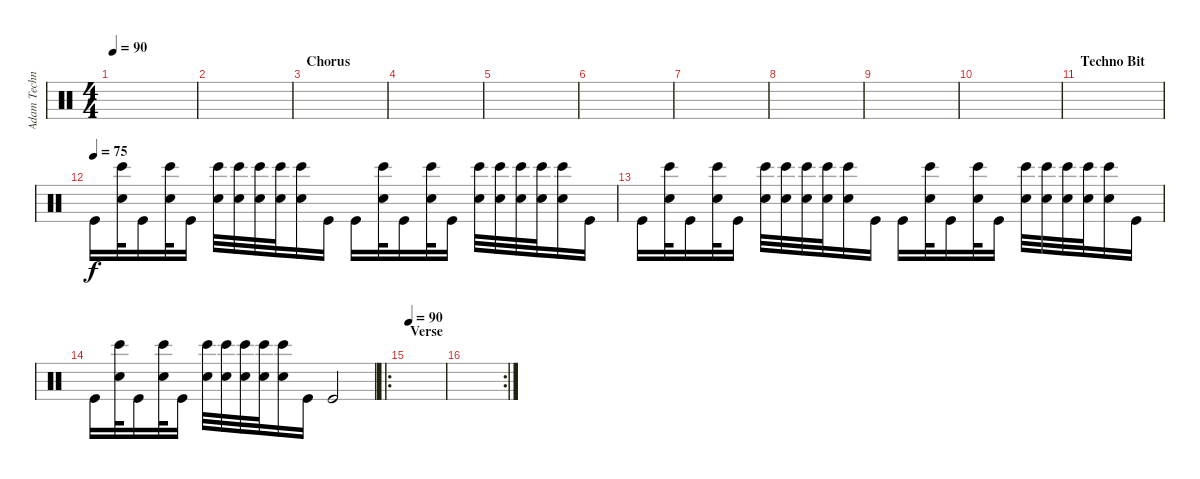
\track ("Adam Techno" "Adam Techn") {instrument percussion}
\staff {score}
\articulation defaults
\ts (4 4)
\tempo 90
\clef neutral
\ks c
|
|
\section ("" "Chorus")
|
|
|
|
|
|
|
|
\section ("" "Techno Bit")
|
\tempo (75)
"Kick (hit)".16 ("Bongo High (hit)" "Snare (hit) 2").32 "Kick (hit)".16 ("Bongo High (hit)" "Snare (hit) 2").32 "Kick (hit)".16 ("Bongo High (hit)" "Snare (hit) 2").32 ("Bongo High (hit)" "Snare (hit) 2").32 ("Bongo High (hit)" "Snare (hit) 2").32 ("Bongo High (hit)" "Snare (hit) 2").32 ("Bongo High (hit)" "Snare (hit) 2").16 "Kick (hit)".16 "Kick (hit)".16 ("Bongo High (hit)" "Snare (hit) 2").32 "Kick (hit)".16 ("Bongo High (hit)" "Snare (hit) 2").32 "Kick (hit)".16 ("Bongo High (hit)" "Snare (hit) 2").32 ("Bongo High (hit)" "Snare (hit) 2").32 ("Bongo High (hit)" "Snare (hit) 2").32 ("Bongo High (hit)" "Snare (hit) 2").32 ("Bongo High (hit)" "Snare (hit) 2").16 "Kick (hit)".16 |
"Kick (hit)".16 ("Bongo High (hit)" "Snare (hit) 2").32 "Kick (hit)".16 ("Bongo High (hit)" "Snare (hit) 2").32 "Kick (hit)".16 ("Bongo High (hit)" "Snare (hit) 2").32 ("Bongo High (hit)" "Snare (hit) 2").32 ("Bongo High (hit)" "Snare (hit) 2").32 ("Bongo High (hit)" "Snare (hit) 2").32 ("Bongo High (hit)" "Snare (hit) 2").16 "Kick (hit)".16 "Kick (hit)".16 ("Bongo High (hit)" "Snare (hit) 2").32 "Kick (hit)".16 ("Bongo High (hit)" "Snare (hit) 2").32 "Kick (hit)".16 ("Bongo High (hit)" "Snare (hit) 2").32 ("Bongo High (hit)" "Snare (hit) 2").32 ("Bongo High (hit)" "Snare (hit) 2").32 ("Bongo High (hit)" "Snare (hit) 2").32 ("Bongo High (hit)" "Snare (hit) 2").16 "Kick (hit)".16 |
"Kick (hit)".16 ("Bongo High (hit)" "Snare (hit) 2").32 "Kick (hit)".16 ("Bongo High (hit)" "Snare (hit) 2").32 "Kick (hit)".16 ("Bongo High (hit)" "Snare (hit) 2").32 ("Bongo High (hit)" "Snare (hit) 2").32 ("Bongo High (hit)" "Snare (hit) 2").32 ("Bongo High (hit)" "Snare (hit) 2").32 ("Bongo High (hit)" "Snare (hit) 2").16 "Kick (hit)".16 "Kick (hit)".2 |
\ro
\section ("" "Verse")
\tempo 90
|
\rc 2
